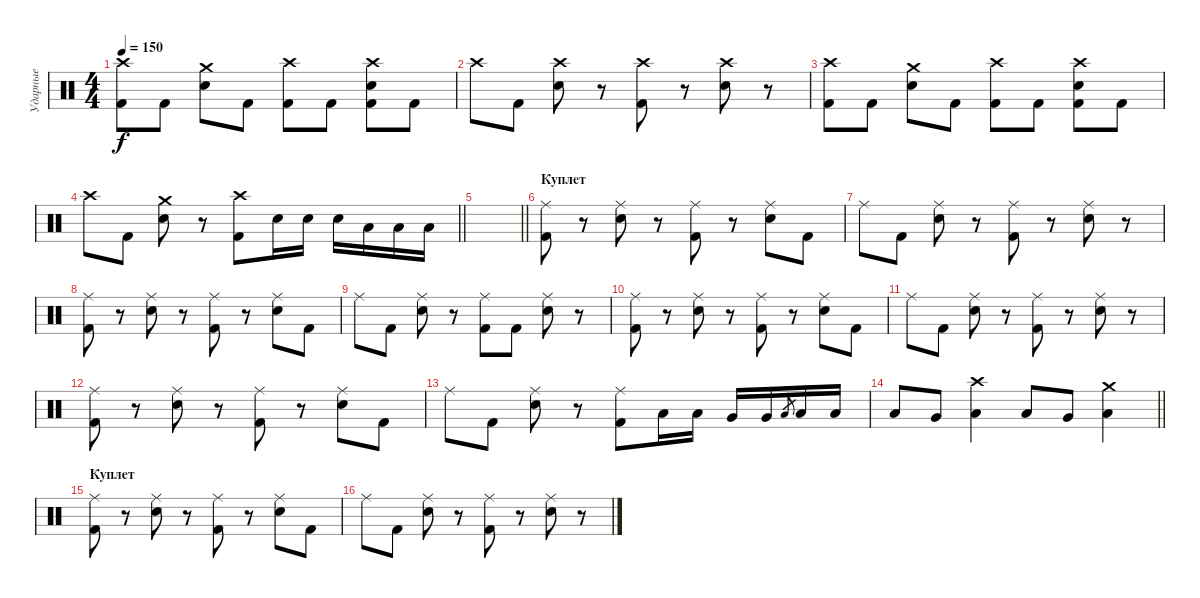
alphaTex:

\track ("Ударные" "Ударные") {instrument percussion}
\staff {score}
\articulation defaults
\ts (4 4)
\tempo 150
\clef neutral
\ks c
("Crash high (hit)" "Kick (hit) 2").8{dy f} "Kick (hit) 2".8 ("Crash medium (hit)" "Snare (hit) 2").8 "Kick (hit) 2".8 ("Crash high (hit)" "Kick (hit) 2").8 "Kick (hit) 2".8 ("Crash high (hit)" "Snare (hit) 2" "Kick (hit) 2").8 "Kick (hit) 2".8 |
"Crash high (hit)".8 "Kick (hit) 2".8 ("Crash high (hit)" "Snare (hit) 2").8 r.8 ("Crash high (hit)" "Kick (hit) 2").8 r.8 ("Crash high (hit)" "Snare (hit) 2").8 r.8 |
("Crash high (hit)" "Kick (hit) 2").8 "Kick (hit) 2".8 ("Crash medium (hit)" "Snare (hit) 2").8 "Kick (hit) 2".8 ("Crash high (hit)" "Kick (hit) 2").8 "Kick (hit) 2".8 ("Crash high (hit)" "Snare (hit) 2" "Kick (hit) 2").8 "Kick (hit) 2".8 |
\barLineRight lightlight "Crash high (hit)".8 "Kick (hit) 2".8
("Crash medium (hit)" "Snare (hit) 2").8 r.8 ("Crash high (hit)" "Kick (hit) 2").8 "Snare (hit) 2".16 "Snare (hit) 2".16 "Snare (hit) 2".16 "Low Floor Tom (hit)".16 "Low Floor Tom (hit)".16 "Low Floor Tom (hit)".16 |
\barLineRight lightlight
|
\section ("" "Куплет ")
("Ride (middle)" "Kick (hit) 2").8 r.8 ("Ride (middle)" "Snare (hit) 2").8 r.8 ("Ride (middle)" "Kick (hit) 2").8 r.8 ("Ride (middle)" "Snare (hit) 2").8 "Kick (hit) 2".8 |
"Ride (middle)".8 "Kick (hit) 2".8 ("Ride (middle)" "Snare (hit) 2").8 r.8 ("Ride (middle)" "Kick (hit) 2").8 r.8 ("Ride (middle)" "Snare (hit) 2").8 r.8 |
("Ride (middle)" "Kick (hit) 2").8 r.8 ("Ride (middle)" "Snare (hit) 2").8 r.8 ("Ride (middle)" "Kick (hit) 2").8 r.8 ("Ride (middle)" "Snare (hit) 2").8 "Kick (hit) 2".8 |
"Ride (middle)".8 "Kick (hit) 2".8 ("Ride (middle)" "Snare (hit) 2").8 r.8 ("Ride (middle)" "Kick (hit) 2").8 "Kick (hit) 2".8 ("Ride (middle)" "Snare (hit) 2").8 r.8 |
("Ride (middle)" "Kick (hit) 2").8 r.8 ("Ride (middle)" "Snare (hit) 2").8 r.8 ("Ride (middle)" "Kick (hit) 2").8 r.8 ("Ride (middle)" "Snare (hit) 2").8 "Kick (hit) 2".8 |
"Ride (middle)".8 "Kick (hit) 2".8 ("Ride (middle)" "Snare (hit) 2").8 r.8 ("Ride (middle)" "Kick (hit) 2").8 r.8 ("Ride (middle)" "Snare (hit) 2").8 r.8 |
("Ride (middle)" "Kick (hit) 2").8 r.8 ("Ride (middle)" "Snare (hit) 2").8 r.8 ("Ride (middle)" "Kick (hit) 2").8 r.8 ("Ride (middle)" "Snare (hit) 2").8 "Kick (hit) 2".8 |
"Ride (middle)".8 "Kick (hit) 2".8 ("Ride (middle)" "Snare (hit) 2").8 r.8 ("Ride (middle)" "Kick (hit) 2").8 "Low Floor Tom (hit)".16 "Low Floor Tom (hit)".16 "Very Low Tom (hit)".16 "Very Low Tom (hit)".16 "Low Tom (hit)".8{gr} "Low Tom (hit)".16 "Low Tom (hit)".16 |
\barLineRight lightlight "Low Floor Tom (hit)".8 "Very Low Tom (hit)".8
("Crash high (hit)" "Low Tom (hit)").4 "Low Floor Tom (hit)".8 "Very Low Tom (hit)".8 ("Crash medium (hit)" "Low Tom (hit)").4 |
\section ("" "Куплет")
("Ride (middle)" "Kick (hit) 2").8 r.8 ("Ride (middle)" "Snare (hit) 2").8 r.8 ("Ride (middle)" "Kick (hit) 2").8 r.8 ("Ride (middle)" "Snare (hit) 2").8 "Kick (hit) 2".8 |
"Ride (middle)".8 "Kick (hit) 2".8 ("Ride (middle)" "Snare (hit) 2").8 r.8 ("Ride (middle)" "Kick (hit) 2").8 r.8 ("Ride (middle)" "Snare (hit) 2").8 r.8
